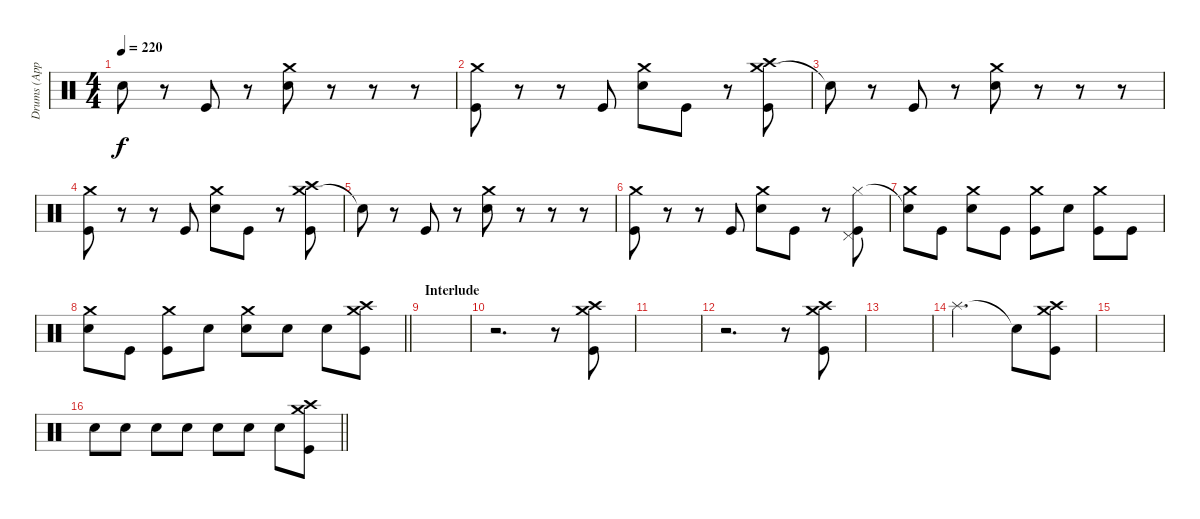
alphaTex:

\track ("Drums (Approx.)" "Drums (App") {instrument percussion}
\staff {score}
\articulation defaults
\ts (4 4)
\tempo 220
\clef neutral
\ks c "Snare (hit)"{t}.8{dy f}
r.8 "Kick (hit)".8 r.8 ("Crash medium (hit)" "Electric Snare (hit)").8 r.8 r.8 r.8 |
("Crash medium (hit)" "Kick (hit)").8 r.8 r.8 "Kick (hit)".8 ("Crash medium (hit)" "Electric Snare (hit)").8 "Kick (hit)".8 r.8 ("Crash medium (hit)" "Crash high (hit)" "Kick (hit)").8 |
"Snare (hit)"{t}.8 r.8 "Kick (hit)".8 r.8 ("Crash medium (hit)" "Electric Snare (hit)").8 r.8 r.8 r.8 |
("Crash medium (hit)" "Kick (hit)").8 r.8 r.8 "Kick (hit)".8 ("Crash medium (hit)" "Electric Snare (hit)").8 "Kick (hit)".8 r.8 ("Crash medium (hit)" "Crash high (hit)" "Kick (hit)").8 |
"Snare (hit)"{t}.8 r.8 "Kick (hit)".8 r.8 ("Crash medium (hit)" "Electric Snare (hit)").8 r.8 r.8 r.8 |
("Crash medium (hit)" "Kick (hit)").8 r.8 r.8 "Kick (hit)".8 ("Crash medium (hit)" "Electric Snare (hit)").8 "Kick (hit)".8 r.8 ("Pedal Hi-Hat (hit)" "Hi-Hat (closed)" "Kick (hit)").8 |
("Crash medium (hit)" "Snare (hit)"{t}).8 "Kick (hit)".8 ("Crash medium (hit)" "Electric Snare (hit)").8 "Kick (hit)".8 ("Crash medium (hit)" "Kick (hit)").8 "Electric Snare (hit)".8 ("Crash medium (hit)" "Kick (hit)").8 "Kick (hit)".8 |
\barLineRight lightlight
("Crash medium (hit)" "Electric Snare (hit)").8 "Kick (hit)".8 ("Crash medium (hit)" "Kick (hit)").8 "Electric Snare (hit)".8 ("Crash medium (hit)" "Electric Snare (hit)").8 "Electric Snare (hit)".8 "Electric Snare (hit)".8 ("Crash medium (hit)" "Crash high (hit)" "Kick (hit)").8 |
\section ("" "Interlude")
|
r.2{d} r.8 ("Crash medium (hit)" "Crash high (hit)" "Kick (hit)").8 |
|
r.2{d} r.8 ("Crash medium (hit)" "Crash high (hit)" "Kick (hit)").8 |
|
"Splash (hit)".2{d} "Snare (hit)"{t}.8 ("Crash medium (hit)" "Crash high (hit)" "Kick (hit)").8 |
|
\barLineRight lightlight "Electric Snare (hit)".8 "Electric Snare (hit)".8 "Electric Snare (hit)".8 "Electric Snare (hit)".8 "Electric Snare (hit)".8 "Electric Snare (hit)".8 "Electric Snare (hit)".8
("Crash medium (hit)" "Crash high (hit)" "Kick (hit)").8
